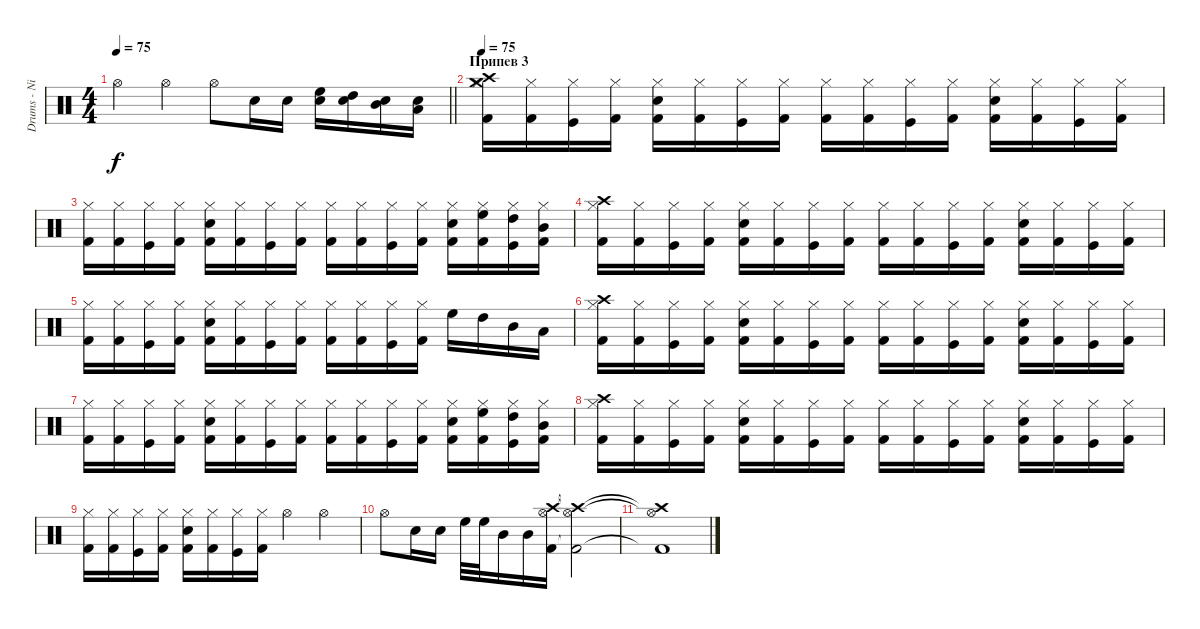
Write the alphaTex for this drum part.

\track ("Drums - NikiTon" "Drums - Ni") {instrument percussion}
\staff {score}
\articulation defaults
\ts (4 4)
\tempo 75
\clef neutral
\barLineRight lightlight
\ks c "Hi-Hat (open)".4{dy f} "Hi-Hat (open)".4 "Hi-Hat (open)".8 "Electric Snare (hit)".16 "Electric Snare (hit)".16
("Electric Snare (hit)" "High Floor Tom (hit)").16 ("Electric Snare (hit)" "High Tom (hit)").16 ("Electric Snare (hit)" "Mid Tom (hit)").16 ("Electric Snare (hit)" "Low Tom (hit)").16 |
\section ("" "Припев 3")
\tempo 75
("Hi-Hat (closed)" "Crash high (hit)" "Kick (hit) 2" "Crash medium (hit)").16 ("Hi-Hat (closed)" "Kick (hit) 2").16 ("Hi-Hat (closed)" "Kick (hit)").16 ("Hi-Hat (closed)" "Kick (hit) 2").16 ("Snare (hit) 2" "Hi-Hat (closed)" "Kick (hit) 2").16 ("Hi-Hat (closed)" "Kick (hit) 2").16 ("Hi-Hat (closed)" "Kick (hit)").16 ("Hi-Hat (closed)" "Kick (hit) 2").16 ("Hi-Hat (closed)" "Kick (hit) 2").16 ("Hi-Hat (closed)" "Kick (hit) 2").16 ("Hi-Hat (closed)" "Kick (hit)").16 ("Hi-Hat (closed)" "Kick (hit) 2").16 ("Snare (hit) 2" "Hi-Hat (closed)" "Kick (hit) 2").16 ("Hi-Hat (closed)" "Kick (hit) 2").16 ("Hi-Hat (closed)" "Kick (hit)").16 ("Hi-Hat (closed)" "Kick (hit) 2").16 |
("Hi-Hat (closed)" "Kick (hit) 2").16 ("Hi-Hat (closed)" "Kick (hit) 2").16 ("Hi-Hat (closed)" "Kick (hit)").16 ("Hi-Hat (closed)" "Kick (hit) 2").16 ("Snare (hit) 2" "Hi-Hat (closed)" "Kick (hit) 2").16 ("Hi-Hat (closed)" "Kick (hit) 2").16 ("Hi-Hat (closed)" "Kick (hit)").16 ("Hi-Hat (closed)" "Kick (hit) 2").16 ("Hi-Hat (closed)" "Kick (hit) 2").16 ("Hi-Hat (closed)" "Kick (hit) 2").16 ("Hi-Hat (closed)" "Kick (hit)").16 ("Hi-Hat (closed)" "Kick (hit) 2").16 ("Snare (hit) 2" "Hi-Hat (closed)" "Kick (hit) 2").16 ("High Floor Tom (hit)" "Hi-Hat (closed)" "Kick (hit) 2").16 ("High Tom (hit)" "Hi-Hat (closed)" "Kick (hit)").16 ("Mid Tom (hit)" "Hi-Hat (closed)" "Kick (hit) 2").16 |
("Hi-Hat (closed)" "Crash high (hit)" "Kick (hit) 2").16 ("Hi-Hat (closed)" "Kick (hit) 2").16 ("Hi-Hat (closed)" "Kick (hit)").16 ("Hi-Hat (closed)" "Kick (hit) 2").16 ("Snare (hit) 2" "Hi-Hat (closed)" "Kick (hit) 2").16 ("Hi-Hat (closed)" "Kick (hit) 2").16 ("Hi-Hat (closed)" "Kick (hit)").16 ("Hi-Hat (closed)" "Kick (hit) 2").16 ("Hi-Hat (closed)" "Kick (hit) 2").16 ("Hi-Hat (closed)" "Kick (hit) 2").16 ("Hi-Hat (closed)" "Kick (hit)").16 ("Hi-Hat (closed)" "Kick (hit) 2").16 ("Snare (hit) 2" "Hi-Hat (closed)" "Kick (hit) 2").16 ("Hi-Hat (closed)" "Kick (hit) 2").16 ("Hi-Hat (closed)" "Kick (hit)").16 ("Hi-Hat (closed)" "Kick (hit) 2").16 |
("Hi-Hat (closed)" "Kick (hit) 2").16 ("Hi-Hat (closed)" "Kick (hit) 2").16 ("Hi-Hat (closed)" "Kick (hit)").16 ("Hi-Hat (closed)" "Kick (hit) 2").16 ("Snare (hit) 2" "Hi-Hat (closed)" "Kick (hit) 2").16 ("Hi-Hat (closed)" "Kick (hit) 2").16 ("Hi-Hat (closed)" "Kick (hit)").16 ("Hi-Hat (closed)" "Kick (hit) 2").16 ("Hi-Hat (closed)" "Kick (hit) 2").16 ("Hi-Hat (closed)" "Kick (hit) 2").16 ("Hi-Hat (closed)" "Kick (hit)").16 ("Hi-Hat (closed)" "Kick (hit) 2").16 "High Floor Tom (hit)".16 "High Tom (hit)".16 "Mid Tom (hit)".16 "Low Tom (hit)".16 |
("Hi-Hat (closed)" "Crash high (hit)" "Kick (hit) 2").16 ("Hi-Hat (closed)" "Kick (hit) 2").16 ("Hi-Hat (closed)" "Kick (hit)").16 ("Hi-Hat (closed)" "Kick (hit) 2").16 ("Snare (hit) 2" "Hi-Hat (closed)" "Kick (hit) 2").16 ("Hi-Hat (closed)" "Kick (hit) 2").16 ("Hi-Hat (closed)" "Kick (hit)").16 ("Hi-Hat (closed)" "Kick (hit) 2").16 ("Hi-Hat (closed)" "Kick (hit) 2").16 ("Hi-Hat (closed)" "Kick (hit) 2").16 ("Hi-Hat (closed)" "Kick (hit)").16 ("Hi-Hat (closed)" "Kick (hit) 2").16 ("Snare (hit) 2" "Hi-Hat (closed)" "Kick (hit) 2").16 ("Hi-Hat (closed)" "Kick (hit) 2").16 ("Hi-Hat (closed)" "Kick (hit)").16 ("Hi-Hat (closed)" "Kick (hit) 2").16 |
("Hi-Hat (closed)" "Kick (hit) 2").16 ("Hi-Hat (closed)" "Kick (hit) 2").16 ("Hi-Hat (closed)" "Kick (hit)").16 ("Hi-Hat (closed)" "Kick (hit) 2").16 ("Snare (hit) 2" "Hi-Hat (closed)" "Kick (hit) 2").16 ("Hi-Hat (closed)" "Kick (hit) 2").16 ("Hi-Hat (closed)" "Kick (hit)").16 ("Hi-Hat (closed)" "Kick (hit) 2").16 ("Hi-Hat (closed)" "Kick (hit) 2").16 ("Hi-Hat (closed)" "Kick (hit) 2").16 ("Hi-Hat (closed)" "Kick (hit)").16 ("Hi-Hat (closed)" "Kick (hit) 2").16 ("Snare (hit) 2" "Hi-Hat (closed)" "Kick (hit) 2").16 ("High Floor Tom (hit)" "Hi-Hat (closed)" "Kick (hit) 2").16 ("High Tom (hit)" "Hi-Hat (closed)" "Kick (hit)").16 ("Mid Tom (hit)" "Hi-Hat (closed)" "Kick (hit) 2").16 |
("Hi-Hat (closed)" "Crash high (hit)" "Kick (hit) 2").16 ("Hi-Hat (closed)" "Kick (hit) 2").16 ("Hi-Hat (closed)" "Kick (hit)").16 ("Hi-Hat (closed)" "Kick (hit) 2").16 ("Snare (hit) 2" "Hi-Hat (closed)" "Kick (hit) 2").16 ("Hi-Hat (closed)" "Kick (hit) 2").16 ("Hi-Hat (closed)" "Kick (hit)").16 ("Hi-Hat (closed)" "Kick (hit) 2").16 ("Hi-Hat (closed)" "Kick (hit) 2").16 ("Hi-Hat (closed)" "Kick (hit) 2").16 ("Hi-Hat (closed)" "Kick (hit)").16 ("Hi-Hat (closed)" "Kick (hit) 2").16 ("Snare (hit) 2" "Hi-Hat (closed)" "Kick (hit) 2").16 ("Hi-Hat (closed)" "Kick (hit) 2").16 ("Hi-Hat (closed)" "Kick (hit)").16 ("Hi-Hat (closed)" "Kick (hit) 2").16 |
("Hi-Hat (closed)" "Kick (hit) 2").16 ("Hi-Hat (closed)" "Kick (hit) 2").16 ("Hi-Hat (closed)" "Kick (hit)").16 ("Hi-Hat (closed)" "Kick (hit) 2").16 ("Snare (hit) 2" "Hi-Hat (closed)" "Kick (hit) 2").16 ("Hi-Hat (closed)" "Kick (hit) 2").16 ("Hi-Hat (closed)" "Kick (hit)").16 ("Hi-Hat (closed)" "Kick (hit) 2").16 "Hi-Hat (open)".4 "Hi-Hat (open)".4 |
"Hi-Hat (open)".8 "Electric Snare (hit)".16 "Electric Snare (hit)".16 "High Floor Tom (hit)".32 "High Floor Tom (hit)".32 "Mid Tom (hit)".16 "Mid Tom (hit)".16 ("Kick (hit) 2" "Hi-Hat (open)" "Crash high (hit)").16 ("Kick (hit) 2"{t} "Hi-Hat (open)"{t} "Crash high (hit)"{t}).2 |
("Kick (hit) 2"{t} "Hi-Hat (open)"{t} "Crash high (hit)"{t}).1
